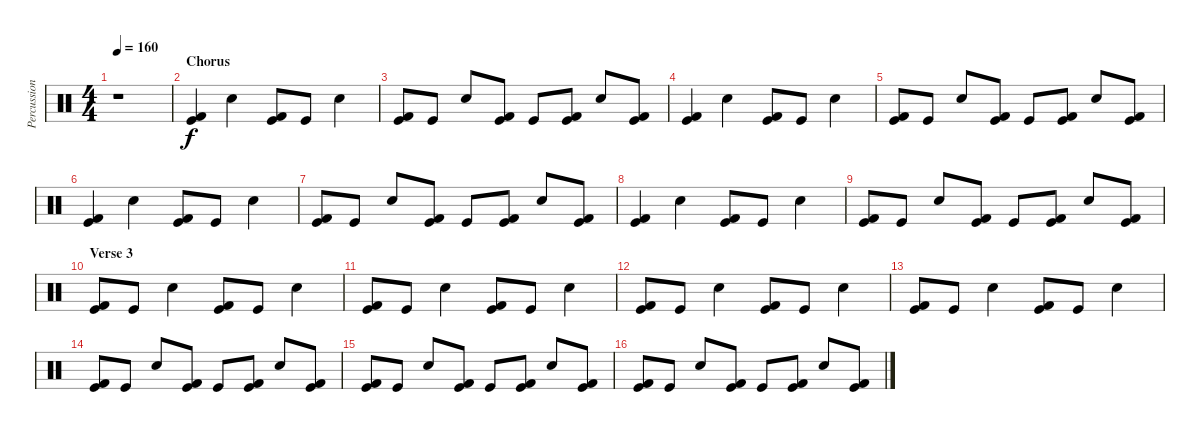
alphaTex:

\track ("Percussion" "Percussion") {instrument percussion}
\staff {score}
\articulation defaults
\ts (4 4)
\tempo 160
\clef neutral
\ks c
r.1{dy f} |
\section ("" "Chorus")
("Kick (hit)" "Kick (hit) 2").4 "Electric Snare (hit)".4 ("Kick (hit)" "Kick (hit) 2").8 "Kick (hit)".8 "Electric Snare (hit)".4 |
("Kick (hit)" "Kick (hit) 2").8 "Kick (hit)".8 "Electric Snare (hit)".8 ("Kick (hit)" "Kick (hit) 2").8 "Kick (hit)".8 ("Kick (hit)" "Kick (hit) 2").8 "Electric Snare (hit)".8 ("Kick (hit)" "Kick (hit) 2").8 |
("Kick (hit)" "Kick (hit) 2").4 "Electric Snare (hit)".4 ("Kick (hit)" "Kick (hit) 2").8 "Kick (hit)".8 "Electric Snare (hit)".4 |
("Kick (hit)" "Kick (hit) 2").8 "Kick (hit)".8 "Electric Snare (hit)".8 ("Kick (hit)" "Kick (hit) 2").8 "Kick (hit)".8 ("Kick (hit)" "Kick (hit) 2").8 "Electric Snare (hit)".8 ("Kick (hit)" "Kick (hit) 2").8 |
("Kick (hit)" "Kick (hit) 2").4 "Electric Snare (hit)".4 ("Kick (hit)" "Kick (hit) 2").8 "Kick (hit)".8 "Electric Snare (hit)".4 |
("Kick (hit)" "Kick (hit) 2").8 "Kick (hit)".8 "Electric Snare (hit)".8 ("Kick (hit)" "Kick (hit) 2").8 "Kick (hit)".8 ("Kick (hit)" "Kick (hit) 2").8 "Electric Snare (hit)".8 ("Kick (hit)" "Kick (hit) 2").8 |
("Kick (hit)" "Kick (hit) 2").4 "Electric Snare (hit)".4 ("Kick (hit)" "Kick (hit) 2").8 "Kick (hit)".8 "Electric Snare (hit)".4 |
("Kick (hit)" "Kick (hit) 2").8 "Kick (hit)".8 "Electric Snare (hit)".8 ("Kick (hit)" "Kick (hit) 2").8 "Kick (hit)".8 ("Kick (hit)" "Kick (hit) 2").8 "Electric Snare (hit)".8 ("Kick (hit)" "Kick (hit) 2").8 |
\section ("" "Verse 3")
("Kick (hit)" "Kick (hit) 2").8 "Kick (hit)".8 "Electric Snare (hit)".4 ("Kick (hit)" "Kick (hit) 2").8 "Kick (hit)".8 "Electric Snare (hit)".4 |
("Kick (hit)" "Kick (hit) 2").8 "Kick (hit)".8 "Electric Snare (hit)".4 ("Kick (hit)" "Kick (hit) 2").8 "Kick (hit)".8 "Electric Snare (hit)".4 |
("Kick (hit)" "Kick (hit) 2").8 "Kick (hit)".8 "Electric Snare (hit)".4 ("Kick (hit)" "Kick (hit) 2").8 "Kick (hit)".8 "Electric Snare (hit)".4 |
("Kick (hit)" "Kick (hit) 2").8 "Kick (hit)".8 "Electric Snare (hit)".4 ("Kick (hit)" "Kick (hit) 2").8 "Kick (hit)".8 "Electric Snare (hit)".4 |
("Kick (hit)" "Kick (hit) 2").8 "Kick (hit)".8 "Electric Snare (hit)".8 ("Kick (hit)" "Kick (hit) 2").8 "Kick (hit)".8 ("Kick (hit)" "Kick (hit) 2").8 "Electric Snare (hit)".8 ("Kick (hit)" "Kick (hit) 2").8 |
("Kick (hit)" "Kick (hit) 2").8 "Kick (hit)".8 "Electric Snare (hit)".8 ("Kick (hit)" "Kick (hit) 2").8 "Kick (hit)".8 ("Kick (hit)" "Kick (hit) 2").8 "Electric Snare (hit)".8 ("Kick (hit)" "Kick (hit) 2").8 |
("Kick (hit)" "Kick (hit) 2").8 "Kick (hit)".8 "Electric Snare (hit)".8 ("Kick (hit)" "Kick (hit) 2").8 "Kick (hit)".8 ("Kick (hit)" "Kick (hit) 2").8 "Electric Snare (hit)".8 ("Kick (hit)" "Kick (hit) 2").8
